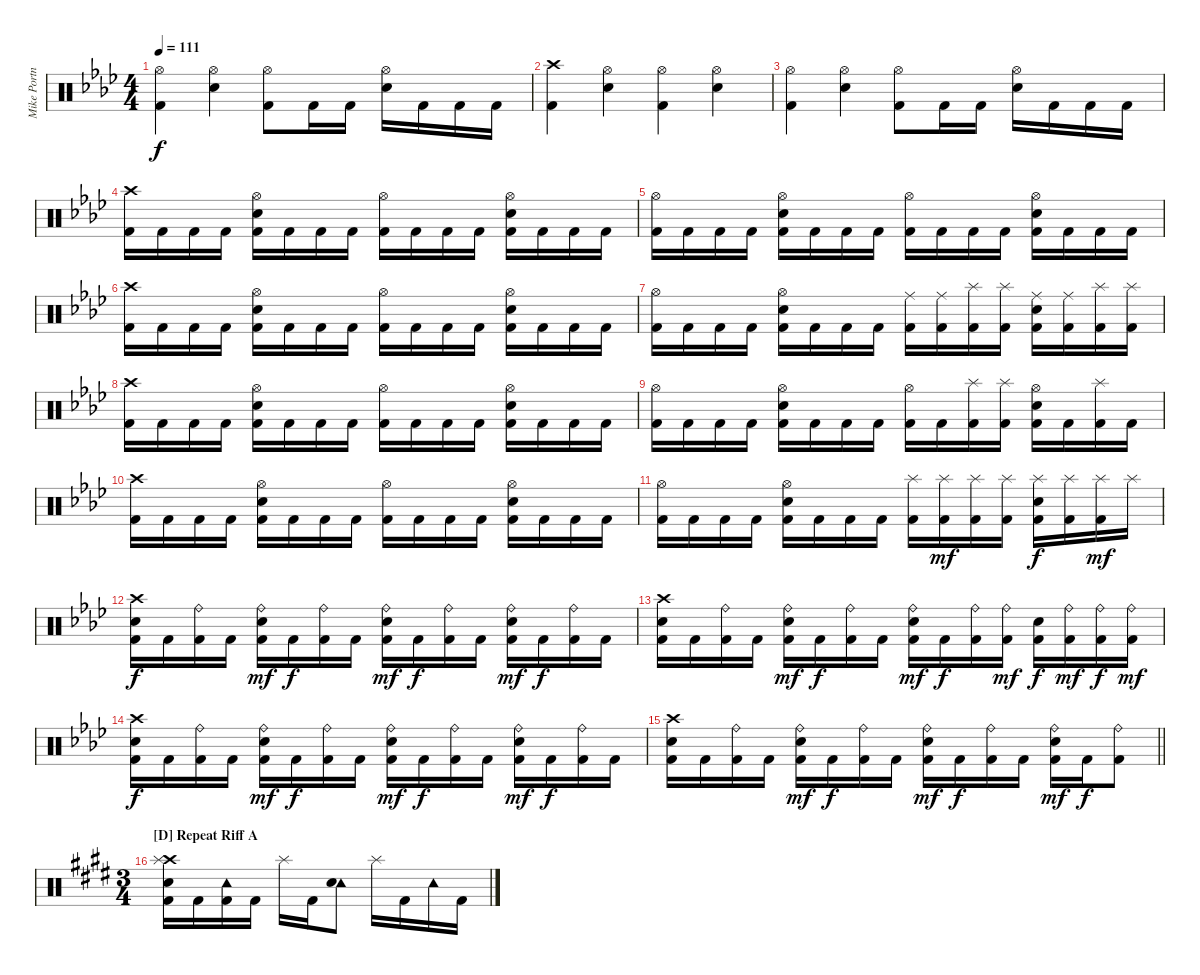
\track ("Mike Portnoy - Drums" "Mike Portn") {instrument percussion}
\staff {score}
\articulation defaults
\ts (4 4)
\tempo 111
\clef neutral
\ks ab
("Hi-Hat (open)" "Kick (hit) 2").4{dy f} ("Hi-Hat (open)" "Electric Snare (hit)").4 ("Hi-Hat (open)" "Kick (hit) 2").8 "Kick (hit) 2".16 "Kick (hit) 2".16 ("Hi-Hat (open)" "Electric Snare (hit)").16 "Kick (hit) 2".16 "Kick (hit) 2".16 "Kick (hit) 2".16 |
("Crash high (hit)" "Kick (hit) 2").4 ("Hi-Hat (open)" "Electric Snare (hit)").4 ("Hi-Hat (open)" "Kick (hit) 2").4 ("Hi-Hat (open)" "Electric Snare (hit)").4 |
("Hi-Hat (open)" "Kick (hit) 2").4 ("Hi-Hat (open)" "Electric Snare (hit)").4 ("Hi-Hat (open)" "Kick (hit) 2").8 "Kick (hit) 2".16 "Kick (hit) 2".16 ("Hi-Hat (open)" "Electric Snare (hit)").16 "Kick (hit) 2".16 "Kick (hit) 2".16 "Kick (hit) 2".16 |
("Kick (hit) 2" "Crash high (hit)").16 "Kick (hit) 2".16 "Kick (hit) 2".16 "Kick (hit) 2".16 ("Kick (hit) 2" "Hi-Hat (open)" "Electric Snare (hit)").16 "Kick (hit) 2".16 "Kick (hit) 2".16 "Kick (hit) 2".16 ("Kick (hit) 2" "Hi-Hat (open)").16 "Kick (hit) 2".16 "Kick (hit) 2".16 "Kick (hit) 2".16 ("Kick (hit) 2" "Hi-Hat (open)" "Electric Snare (hit)").16 "Kick (hit) 2".16 "Kick (hit) 2".16 "Kick (hit) 2".16 |
("Kick (hit) 2" "Hi-Hat (open)").16 "Kick (hit) 2".16 "Kick (hit) 2".16 "Kick (hit) 2".16 ("Kick (hit) 2" "Hi-Hat (open)" "Electric Snare (hit)").16 "Kick (hit) 2".16 "Kick (hit) 2".16 "Kick (hit) 2".16 ("Kick (hit) 2" "Hi-Hat (open)").16 "Kick (hit) 2".16 "Kick (hit) 2".16 "Kick (hit) 2".16 ("Kick (hit) 2" "Hi-Hat (open)" "Electric Snare (hit)").16 "Kick (hit) 2".16 "Kick (hit) 2".16 "Kick (hit) 2".16 |
("Kick (hit) 2" "Crash high (hit)").16 "Kick (hit) 2".16 "Kick (hit) 2".16 "Kick (hit) 2".16 ("Kick (hit) 2" "Hi-Hat (open)" "Electric Snare (hit)").16 "Kick (hit) 2".16 "Kick (hit) 2".16 "Kick (hit) 2".16 ("Kick (hit) 2" "Hi-Hat (open)").16 "Kick (hit) 2".16 "Kick (hit) 2".16 "Kick (hit) 2".16 ("Kick (hit) 2" "Hi-Hat (open)" "Electric Snare (hit)").16 "Kick (hit) 2".16 "Kick (hit) 2".16 "Kick (hit) 2".16 |
("Kick (hit) 2" "Hi-Hat (open)").16 "Kick (hit) 2".16 "Kick (hit) 2".16 "Kick (hit) 2".16 ("Kick (hit) 2" "Hi-Hat (open)" "Electric Snare (hit)").16 "Kick (hit) 2".16 "Kick (hit) 2".16 "Kick (hit) 2".16 ("Kick (hit) 2" "Ride (middle)").16 ("Kick (hit) 2" "Ride (middle)").16 ("Kick (hit) 2" "Splash (hit)").16 ("Kick (hit) 2" "Splash (hit)").16 ("Kick (hit) 2" "Electric Snare (hit)" "Ride (middle)").16 ("Kick (hit) 2" "Ride (middle)").16 ("Kick (hit) 2" "Splash (hit)").16 ("Kick (hit) 2" "Splash (hit)").16 |
("Kick (hit) 2" "Crash high (hit)").16 "Kick (hit) 2".16 "Kick (hit) 2".16 "Kick (hit) 2".16 ("Kick (hit) 2" "Hi-Hat (open)" "Electric Snare (hit)").16 "Kick (hit) 2".16 "Kick (hit) 2".16 "Kick (hit) 2".16 ("Kick (hit) 2" "Hi-Hat (open)").16 "Kick (hit) 2".16 "Kick (hit) 2".16 "Kick (hit) 2".16 ("Kick (hit) 2" "Hi-Hat (open)" "Electric Snare (hit)").16 "Kick (hit) 2".16 "Kick (hit) 2".16 "Kick (hit) 2".16 |
("Kick (hit) 2" "Hi-Hat (open)").16 "Kick (hit) 2".16 "Kick (hit) 2".16 "Kick (hit) 2".16 ("Kick (hit) 2" "Hi-Hat (open)" "Electric Snare (hit)").16 "Kick (hit) 2".16 "Kick (hit) 2".16 "Kick (hit) 2".16 ("Kick (hit) 2" "Hi-Hat (open)").16 "Kick (hit) 2".16 ("Kick (hit) 2" "Splash (hit)").16 ("Kick (hit) 2" "Splash (hit)").16 ("Kick (hit) 2" "Hi-Hat (open)" "Electric Snare (hit)").16 "Kick (hit) 2".16 ("Kick (hit) 2" "Splash (hit)").16 "Kick (hit) 2".16 |
("Kick (hit) 2" "Crash high (hit)").16 "Kick (hit) 2".16 "Kick (hit) 2".16 "Kick (hit) 2".16 ("Kick (hit) 2" "Hi-Hat (open)" "Electric Snare (hit)").16 "Kick (hit) 2".16 "Kick (hit) 2".16 "Kick (hit) 2".16 ("Kick (hit) 2" "Hi-Hat (open)").16 "Kick (hit) 2".16 "Kick (hit) 2".16 "Kick (hit) 2".16 ("Kick (hit) 2" "Hi-Hat (open)" "Electric Snare (hit)").16 "Kick (hit) 2".16 "Kick (hit) 2".16 "Kick (hit) 2".16 |
("Kick (hit) 2" "Hi-Hat (open)").16 "Kick (hit) 2".16 "Kick (hit) 2".16 "Kick (hit) 2".16 ("Kick (hit) 2" "Hi-Hat (open)" "Electric Snare (hit)").16 "Kick (hit) 2".16 "Kick (hit) 2".16 "Kick (hit) 2".16 ("Kick (hit) 2" "Splash (hit)").16 ("Kick (hit) 2" "Splash (hit)").16{dy mf} ("Kick (hit) 2" "Splash (hit)").16 ("Kick (hit) 2" "Splash (hit)").16 ("Kick (hit) 2" "Electric Snare (hit)" "Splash (hit)").16{dy f} ("Kick (hit) 2" "Splash (hit)").16 ("Kick (hit) 2" "Splash (hit)").16{dy mf} "Splash (hit)".16 |
("Kick (hit) 2" "Crash high (hit)" "Electric Snare (hit)").16{dy f} "Kick (hit) 2".16 ("Kick (hit) 2" "Ride (bell)").16 "Kick (hit) 2".16 ("Kick (hit) 2" "Ride (bell)" "Electric Snare (hit)").16{dy mf} "Kick (hit) 2".16{dy f} ("Kick (hit) 2" "Ride (bell)").16 "Kick (hit) 2".16 ("Kick (hit) 2" "Ride (bell)" "Electric Snare (hit)").16{dy mf} "Kick (hit) 2".16{dy f} ("Kick (hit) 2" "Ride (bell)").16 "Kick (hit) 2".16 ("Kick (hit) 2" "Ride (bell)" "Electric Snare (hit)").16{dy mf} "Kick (hit) 2".16{dy f} ("Kick (hit) 2" "Ride (bell)").16 "Kick (hit) 2".16 |
("Kick (hit) 2" "Crash high (hit)" "Electric Snare (hit)").16 "Kick (hit) 2".16 ("Kick (hit) 2" "Ride (bell)").16 "Kick (hit) 2".16 ("Kick (hit) 2" "Ride (bell)" "Electric Snare (hit)").16{dy mf} "Kick (hit) 2".16{dy f} ("Kick (hit) 2" "Ride (bell)").16 "Kick (hit) 2".16 ("Kick (hit) 2" "Ride (bell)" "Electric Snare (hit)").16{dy mf} "Kick (hit) 2".16{dy f} ("Kick (hit) 2" "Ride (bell)").16 ("Kick (hit) 2" "Ride (bell)").16{dy mf} ("Kick (hit) 2" "Electric Snare (hit)").16{dy f} ("Kick (hit) 2" "Ride (bell)").16{dy mf} ("Kick (hit) 2" "Ride (bell)").16{dy f} ("Kick (hit) 2" "Ride (bell)").16{dy mf} |
("Kick (hit) 2" "Crash high (hit)" "Electric Snare (hit)").16{dy f} "Kick (hit) 2".16 ("Kick (hit) 2" "Ride (bell)").16 "Kick (hit) 2".16 ("Kick (hit) 2" "Ride (bell)" "Electric Snare (hit)").16{dy mf} "Kick (hit) 2".16{dy f} ("Kick (hit) 2" "Ride (bell)").16 "Kick (hit) 2".16 ("Kick (hit) 2" "Ride (bell)" "Electric Snare (hit)").16{dy mf} "Kick (hit) 2".16{dy f} ("Kick (hit) 2" "Ride (bell)").16 "Kick (hit) 2".16 ("Kick (hit) 2" "Ride (bell)" "Electric Snare (hit)").16{dy mf} "Kick (hit) 2".16{dy f} ("Kick (hit) 2" "Ride (bell)").16 "Kick (hit) 2".16 |
\barLineRight lightlight
("Kick (hit) 2" "Crash high (hit)" "Electric Snare (hit)").16 "Kick (hit) 2".16 ("Kick (hit) 2" "Ride (bell)").16 "Kick (hit) 2".16 ("Kick (hit) 2" "Ride (bell)" "Electric Snare (hit)").16{dy mf} "Kick (hit) 2".16{dy f} ("Kick (hit) 2" "Ride (bell)").16 "Kick (hit) 2".16 ("Kick (hit) 2" "Ride (bell)" "Electric Snare (hit)").16{dy mf} "Kick (hit) 2".16{dy f} ("Kick (hit) 2" "Ride (bell)").16 "Kick (hit) 2".16 ("Kick (hit) 2" "Ride (bell)" "Electric Snare (hit)").16{dy mf} "Kick (hit) 2".16{dy f} ("Kick (hit) 2" "Ride (bell)").8 |
\ts (3 4)
\section ("" "[D] Repeat Riff A ")
\ks e
("Crash high (hit)" "Splash (hit)" "Electric Snare (hit)" "Kick (hit) 2").16 "Kick (hit) 2".16 ("Tambourine (hit)" "Kick (hit) 2").16 "Kick (hit) 2".16 "Splash (hit)".16 "Kick (hit) 2".16 ("Tambourine (hit)" "Electric Snare (hit)").8 "Splash (hit)".16 "Kick (hit) 2".16 "Tambourine (hit)".16 "Kick (hit) 2".16
